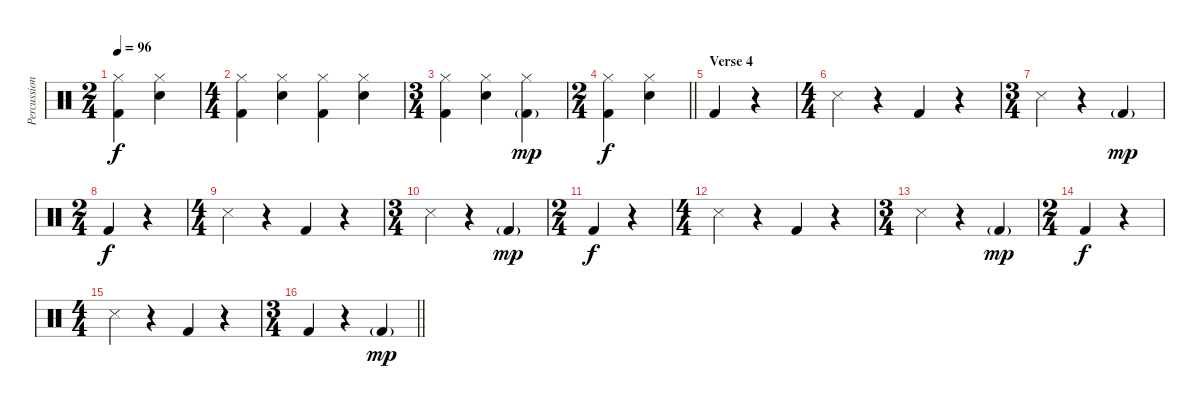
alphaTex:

\track ("Percussion" "Percussion") {instrument percussion}
\staff {score}
\articulation defaults
\ts (2 4)
\tempo 96
\clef neutral
\ks c
("Hi-Hat (closed)" "Kick (hit) 2").4{dy f} ("Hi-Hat (closed)" "Snare (hit) 2").4 |
\ts (4 4)
("Hi-Hat (closed)" "Kick (hit) 2").4 ("Hi-Hat (closed)" "Snare (hit) 2").4 ("Hi-Hat (closed)" "Kick (hit) 2").4 ("Hi-Hat (closed)" "Snare (hit) 2").4 |
\ts (3 4)
("Hi-Hat (closed)" "Kick (hit) 2").4 ("Hi-Hat (closed)" "Snare (hit) 2").4 ("Hi-Hat (closed)" "Kick (hit) 2"{g}).4{dy mp} |
\ts (2 4)
\barLineRight lightlight
("Hi-Hat (closed)" "Kick (hit) 2").4{dy f} ("Hi-Hat (closed)" "Snare (hit) 2").4 |
\section ("" "Verse 4")
"Kick (hit) 2".4 r.4 |
\ts (4 4)
"Snare (side stick) 3".4 r.4 "Kick (hit) 2".4 r.4 |
\ts (3 4)
"Snare (side stick) 3".4 r.4 "Kick (hit) 2"{g}.4{dy mp} |
\ts (2 4)
"Kick (hit) 2".4{dy f} r.4 |
\ts (4 4)
"Snare (side stick) 3".4 r.4 "Kick (hit) 2".4 r.4 |
\ts (3 4)
"Snare (side stick) 3".4 r.4 "Kick (hit) 2"{g}.4{dy mp} |
\ts (2 4)
"Kick (hit) 2".4{dy f} r.4 |
\ts (4 4)
"Snare (side stick) 3".4 r.4 "Kick (hit) 2".4 r.4 |
\ts (3 4)
"Snare (side stick) 3".4 r.4 "Kick (hit) 2"{g}.4{dy mp} |
\ts (2 4)
"Kick (hit) 2".4{dy f} r.4 |
\ts (4 4)
"Snare (side stick) 3".4 r.4 "Kick (hit) 2".4 r.4 |
\ts (3 4)
\barLineRight lightlight "Kick (hit) 2".4
r.4 "Kick (hit) 2"{g}.4{dy mp}
